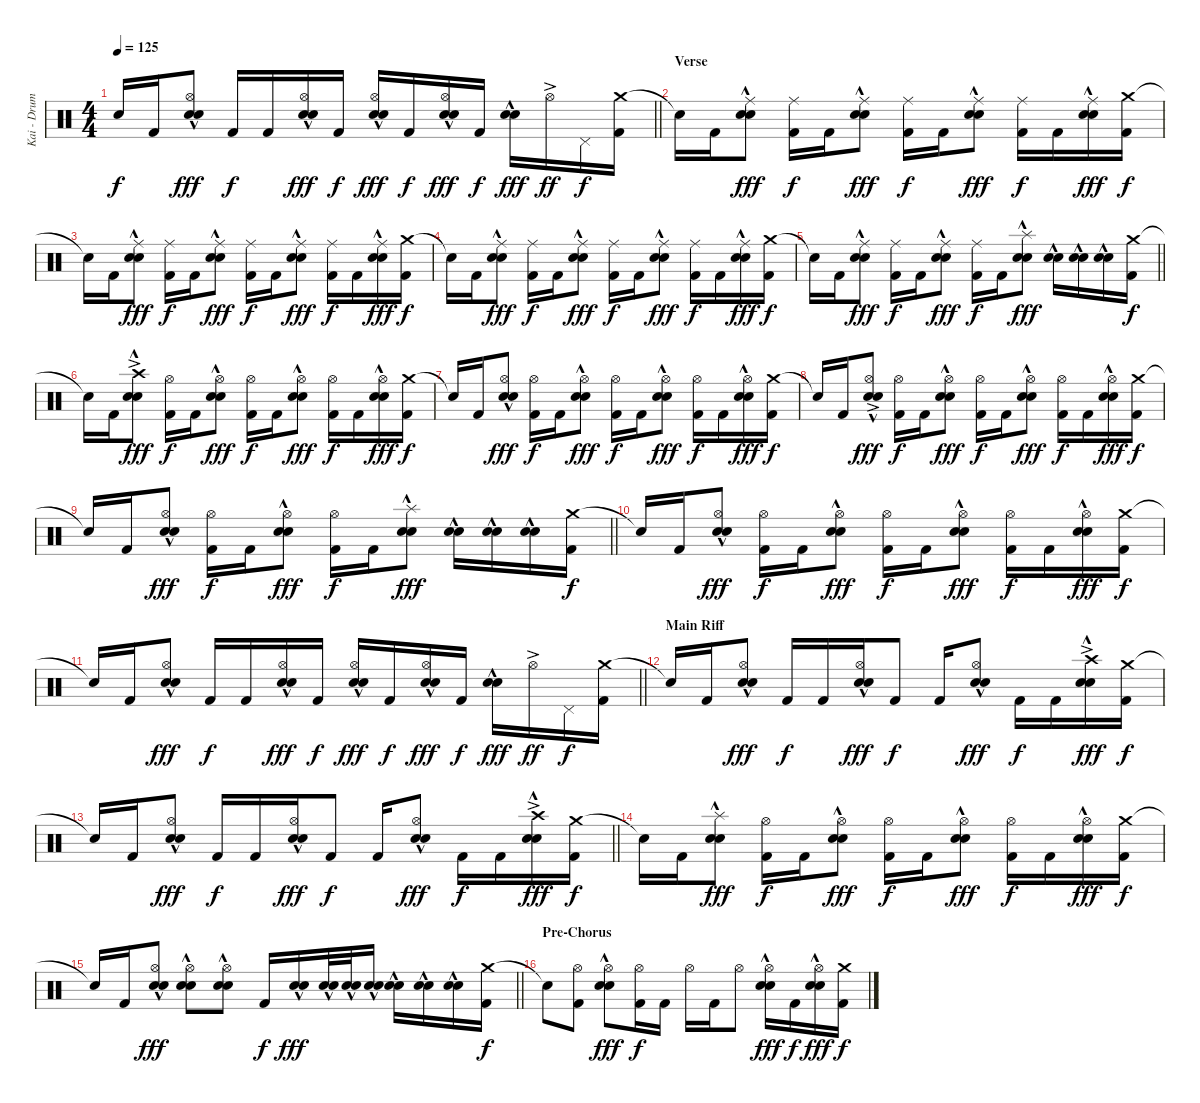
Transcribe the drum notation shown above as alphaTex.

\track ("Kai - Drums" "Kai - Drum") {instrument percussion}
\staff {score}
\articulation defaults
\ts (4 4)
\tempo 125
\clef neutral
\barLineRight lightlight
\ks c "Snare (hit)"{t}.16{dy f} "Kick (hit) 2".16
("Hi-Hat (open)" "Electric Snare (hit)"{hac} "Snare (hit) 2").8{dy fff} "Kick (hit) 2".16{dy f} "Kick (hit) 2".16 ("Hi-Hat (open)" "Electric Snare (hit)"{hac} "Snare (hit) 2").16{dy fff} "Kick (hit) 2".16{dy f} ("Hi-Hat (open)" "Electric Snare (hit)"{hac} "Snare (hit) 2").16{dy fff} "Kick (hit) 2".16{dy f} ("Hi-Hat (open)" "Electric Snare (hit)"{hac} "Snare (hit) 2").16{dy fff} "Kick (hit) 2".16{dy f} ("Electric Snare (hit)"{hac} "Snare (hit) 2").16{dy fff} "Hi-Hat (open)"{ac}.16{dy ff} "Pedal Hi-Hat (hit)".16{dy f} ("Crash medium (hit)" "Kick (hit) 2").16 |
\section ("" "Verse")
"Snare (hit)"{t}.16 "Kick (hit) 2".16 ("Ride (middle)" "Electric Snare (hit)"{hac} "Snare (hit) 2").8{dy fff} ("Ride (middle)" "Kick (hit) 2").16{dy f} "Kick (hit) 2".16 ("Ride (middle)" "Electric Snare (hit)"{hac} "Snare (hit) 2").8{dy fff} ("Ride (middle)" "Kick (hit) 2").16{dy f} "Kick (hit) 2".16 ("Ride (middle)" "Electric Snare (hit)"{hac} "Snare (hit) 2").8{dy fff} ("Ride (middle)" "Kick (hit) 2").16{dy f} "Kick (hit) 2".16 ("Ride (middle)" "Electric Snare (hit)"{hac} "Snare (hit) 2").16{dy fff} ("Crash medium (hit)" "Kick (hit) 2").16{dy f} |
"Snare (hit)"{t}.16 "Kick (hit) 2".16 ("Ride (middle)" "Electric Snare (hit)"{hac} "Snare (hit) 2").8{dy fff} ("Ride (middle)" "Kick (hit) 2").16{dy f} "Kick (hit) 2".16 ("Ride (middle)" "Electric Snare (hit)"{hac} "Snare (hit) 2").8{dy fff} ("Ride (middle)" "Kick (hit) 2").16{dy f} "Kick (hit) 2".16 ("Ride (middle)" "Electric Snare (hit)"{hac} "Snare (hit) 2").8{dy fff} ("Ride (middle)" "Kick (hit) 2").16{dy f} "Kick (hit) 2".16 ("Ride (middle)" "Electric Snare (hit)"{hac} "Snare (hit) 2").16{dy fff} ("Crash medium (hit)" "Kick (hit) 2").16{dy f} |
"Snare (hit)"{t}.16 "Kick (hit) 2".16 ("Ride (middle)" "Electric Snare (hit)"{hac} "Snare (hit) 2").8{dy fff} ("Ride (middle)" "Kick (hit) 2").16{dy f} "Kick (hit) 2".16 ("Ride (middle)" "Electric Snare (hit)"{hac} "Snare (hit) 2").8{dy fff} ("Ride (middle)" "Kick (hit) 2").16{dy f} "Kick (hit) 2".16 ("Ride (middle)" "Electric Snare (hit)"{hac} "Snare (hit) 2").8{dy fff} ("Ride (middle)" "Kick (hit) 2").16{dy f} "Kick (hit) 2".16 ("Ride (middle)" "Electric Snare (hit)"{hac} "Snare (hit) 2").16{dy fff} ("Crash medium (hit)" "Kick (hit) 2").16{dy f} |
\barLineRight lightlight "Snare (hit)"{t}.16 "Kick (hit) 2".16
("Ride (middle)" "Electric Snare (hit)"{hac} "Snare (hit) 2").8{dy fff} ("Ride (middle)" "Kick (hit) 2").16{dy f} "Kick (hit) 2".16 ("Ride (middle)" "Electric Snare (hit)"{hac} "Snare (hit) 2").8{dy fff} ("Ride (middle)" "Kick (hit) 2").16{dy f} "Kick (hit) 2".16 ("Splash (hit)"{hac} "Electric Snare (hit)"{hac} "Snare (hit) 2").8{dy fff} ("Electric Snare (hit)"{hac} "Snare (hit) 2").16 ("Electric Snare (hit)"{hac} "Snare (hit) 2").16 ("Electric Snare (hit)"{hac} "Snare (hit) 2").16 ("Crash medium (hit)" "Kick (hit) 2").16{dy f} |
"Snare (hit)"{t}.16 "Kick (hit) 2".16 ("Crash high (hit)"{ac} "Electric Snare (hit)"{hac} "Snare (hit) 2").8{dy fff} ("Hi-Hat (open)" "Kick (hit) 2").16{dy f} "Kick (hit) 2".16 ("Hi-Hat (open)" "Electric Snare (hit)"{hac} "Snare (hit) 2").8{dy fff} ("Hi-Hat (open)" "Kick (hit) 2").16{dy f} "Kick (hit) 2".16 ("Hi-Hat (open)" "Electric Snare (hit)"{hac} "Snare (hit) 2").8{dy fff} ("Hi-Hat (open)" "Kick (hit) 2").16{dy f} "Kick (hit) 2".16 ("Hi-Hat (open)" "Electric Snare (hit)"{hac} "Snare (hit) 2").16{dy fff} ("Crash medium (hit)" "Kick (hit) 2").16{dy f} |
"Snare (hit)"{t}.16 "Kick (hit) 2".16 ("Hi-Hat (open)" "Electric Snare (hit)"{hac} "Snare (hit) 2").8{dy fff} ("Hi-Hat (open)" "Kick (hit) 2").16{dy f} "Kick (hit) 2".16 ("Hi-Hat (open)" "Electric Snare (hit)"{hac} "Snare (hit) 2").8{dy fff} ("Hi-Hat (open)" "Kick (hit) 2").16{dy f} "Kick (hit) 2".16 ("Hi-Hat (open)" "Electric Snare (hit)"{hac} "Snare (hit) 2").8{dy fff} ("Hi-Hat (open)" "Kick (hit) 2").16{dy f} "Kick (hit) 2".16 ("Hi-Hat (open)" "Electric Snare (hit)"{hac} "Snare (hit) 2").16{dy fff} ("Crash medium (hit)" "Kick (hit) 2").16{dy f} |
"Snare (hit)"{t}.16 "Kick (hit) 2".16 ("Hi-Hat (open)"{ac} "Electric Snare (hit)"{hac} "Snare (hit) 2").8{dy fff} ("Hi-Hat (open)" "Kick (hit) 2").16{dy f} "Kick (hit) 2".16 ("Hi-Hat (open)" "Electric Snare (hit)"{hac} "Snare (hit) 2").8{dy fff} ("Hi-Hat (open)" "Kick (hit) 2").16{dy f} "Kick (hit) 2".16 ("Hi-Hat (open)" "Electric Snare (hit)"{hac} "Snare (hit) 2").8{dy fff} ("Hi-Hat (open)" "Kick (hit) 2").16{dy f} "Kick (hit) 2".16 ("Hi-Hat (open)" "Electric Snare (hit)"{hac} "Snare (hit) 2").16{dy fff} ("Crash medium (hit)" "Kick (hit) 2").16{dy f} |
\barLineRight lightlight "Snare (hit)"{t}.16 "Kick (hit) 2".16
("Hi-Hat (open)" "Electric Snare (hit)"{hac} "Snare (hit) 2").8{dy fff} ("Hi-Hat (open)" "Kick (hit) 2").16{dy f} "Kick (hit) 2".16 ("Hi-Hat (open)" "Electric Snare (hit)"{hac} "Snare (hit) 2").8{dy fff} ("Hi-Hat (open)" "Kick (hit) 2").16{dy f} "Kick (hit) 2".16 ("Splash (hit)"{hac} "Electric Snare (hit)"{hac} "Snare (hit) 2").8{dy fff} ("Electric Snare (hit)"{hac} "Snare (hit) 2").16 ("Electric Snare (hit)"{hac} "Snare (hit) 2").16 ("Electric Snare (hit)"{hac} "Snare (hit) 2").16 ("Crash medium (hit)" "Kick (hit) 2").16{dy f} |
"Snare (hit)"{t}.16 "Kick (hit) 2".16 ("Hi-Hat (open)" "Electric Snare (hit)"{hac} "Snare (hit) 2").8{dy fff} ("Hi-Hat (open)" "Kick (hit) 2").16{dy f} "Kick (hit) 2".16 ("Hi-Hat (open)" "Electric Snare (hit)"{hac} "Snare (hit) 2").8{dy fff} ("Hi-Hat (open)" "Kick (hit) 2").16{dy f} "Kick (hit) 2".16 ("Hi-Hat (open)" "Electric Snare (hit)"{hac} "Snare (hit) 2").8{dy fff} ("Hi-Hat (open)" "Kick (hit) 2").16{dy f} "Kick (hit) 2".16 ("Hi-Hat (open)" "Electric Snare (hit)"{hac} "Snare (hit) 2").16{dy fff} ("Crash medium (hit)" "Kick (hit) 2").16{dy f} |
\barLineRight lightlight "Snare (hit)"{t}.16 "Kick (hit) 2".16
("Hi-Hat (open)" "Electric Snare (hit)"{hac} "Snare (hit) 2").8{dy fff} "Kick (hit) 2".16{dy f} "Kick (hit) 2".16 ("Hi-Hat (open)" "Electric Snare (hit)"{hac} "Snare (hit) 2").16{dy fff} "Kick (hit) 2".16{dy f} ("Hi-Hat (open)" "Electric Snare (hit)"{hac} "Snare (hit) 2").16{dy fff} "Kick (hit) 2".16{dy f} ("Hi-Hat (open)" "Electric Snare (hit)"{hac} "Snare (hit) 2").16{dy fff} "Kick (hit) 2".16{dy f} ("Electric Snare (hit)"{hac} "Snare (hit) 2").16{dy fff} "Hi-Hat (open)"{ac}.16{dy ff} "Pedal Hi-Hat (hit)".16{dy f} ("Crash medium (hit)" "Kick (hit) 2").16 |
\section ("" "Main Riff")
"Snare (hit)"{t}.16 "Kick (hit) 2".16 ("Hi-Hat (open)" "Electric Snare (hit)"{hac} "Snare (hit) 2").8{dy fff} "Kick (hit) 2".16{dy f} "Kick (hit) 2".16 ("Hi-Hat (open)" "Electric Snare (hit)"{hac} "Snare (hit) 2").16{dy fff} "Kick (hit) 2".8{dy f} "Kick (hit) 2".16 ("Hi-Hat (open)" "Electric Snare (hit)"{hac} "Snare (hit) 2").8{dy fff} "Kick (hit) 2".16{dy f} "Kick (hit) 2".16 ("Crash high (hit)"{ac} "Electric Snare (hit)"{hac} "Snare (hit) 2").16{dy fff} ("Crash medium (hit)" "Kick (hit) 2").16{dy f} |
\barLineRight lightlight "Snare (hit)"{t}.16 "Kick (hit) 2".16
("Hi-Hat (open)" "Electric Snare (hit)"{hac} "Snare (hit) 2").8{dy fff} "Kick (hit) 2".16{dy f} "Kick (hit) 2".16 ("Hi-Hat (open)" "Electric Snare (hit)"{hac} "Snare (hit) 2").16{dy fff} "Kick (hit) 2".8{dy f} "Kick (hit) 2".16 ("Hi-Hat (open)" "Electric Snare (hit)"{hac} "Snare (hit) 2").8{dy fff} "Kick (hit) 2".16{dy f} "Kick (hit) 2".16 ("Crash high (hit)"{ac} "Electric Snare (hit)"{hac} "Snare (hit) 2").16{dy fff} ("Crash medium (hit)" "Kick (hit) 2").16{dy f} |
\section ("" "")
"Snare (hit)"{t}.16 "Kick (hit) 2".16 ("Splash (hit)"{hac} "Electric Snare (hit)"{hac} "Snare (hit) 2").8{dy fff} ("Hi-Hat (open)" "Kick (hit) 2").16{dy f} "Kick (hit) 2".16 ("Hi-Hat (open)" "Electric Snare (hit)"{hac} "Snare (hit) 2").8{dy fff} ("Hi-Hat (open)" "Kick (hit) 2").16{dy f} "Kick (hit) 2".16 ("Hi-Hat (open)" "Electric Snare (hit)"{hac} "Snare (hit) 2").8{dy fff} ("Hi-Hat (open)" "Kick (hit) 2").16{dy f} "Kick (hit) 2".16 ("Hi-Hat (open)" "Electric Snare (hit)"{hac} "Snare (hit) 2").16{dy fff} ("Crash medium (hit)" "Kick (hit) 2").16{dy f} |
\barLineRight lightlight "Snare (hit)"{t}.16 "Kick (hit) 2".16
("Hi-Hat (open)" "Electric Snare (hit)"{hac} "Snare (hit) 2").8{dy fff} ("Hi-Hat (open)" "Electric Snare (hit)"{hac} "Snare (hit) 2").8 ("Hi-Hat (open)" "Electric Snare (hit)"{hac} "Snare (hit) 2").8 "Kick (hit) 2".16{dy f} ("Electric Snare (hit)"{hac} "Snare (hit) 2").16{dy fff} ("Electric Snare (hit)"{hac} "Snare (hit) 2").32 ("Electric Snare (hit)"{hac} "Snare (hit) 2").32 ("Electric Snare (hit)"{hac} "Snare (hit) 2").16 ("Electric Snare (hit)"{hac} "Snare (hit) 2").16 ("Electric Snare (hit)"{hac} "Snare (hit) 2").16 ("Electric Snare (hit)"{hac} "Snare (hit) 2").16 ("Crash medium (hit)" "Kick (hit) 2").16{dy f} |
\section ("" "Pre-Chorus")
"Snare (hit)"{t}.8 ("Hi-Hat (open)" "Kick (hit) 2").8 ("Hi-Hat (open)" "Electric Snare (hit)"{hac} "Snare (hit) 2").8{dy fff} ("Hi-Hat (open)" "Kick (hit) 2").16{dy f} "Kick (hit) 2".16 "Hi-Hat (open)".16 "Kick (hit) 2".16 "Hi-Hat (open)".8 ("Hi-Hat (open)" "Electric Snare (hit)"{hac} "Snare (hit) 2").16{dy fff} "Kick (hit) 2".16{dy f} ("Hi-Hat (open)" "Electric Snare (hit)"{hac} "Snare (hit) 2").16{dy fff} ("Crash medium (hit)" "Kick (hit) 2").16{dy f}
